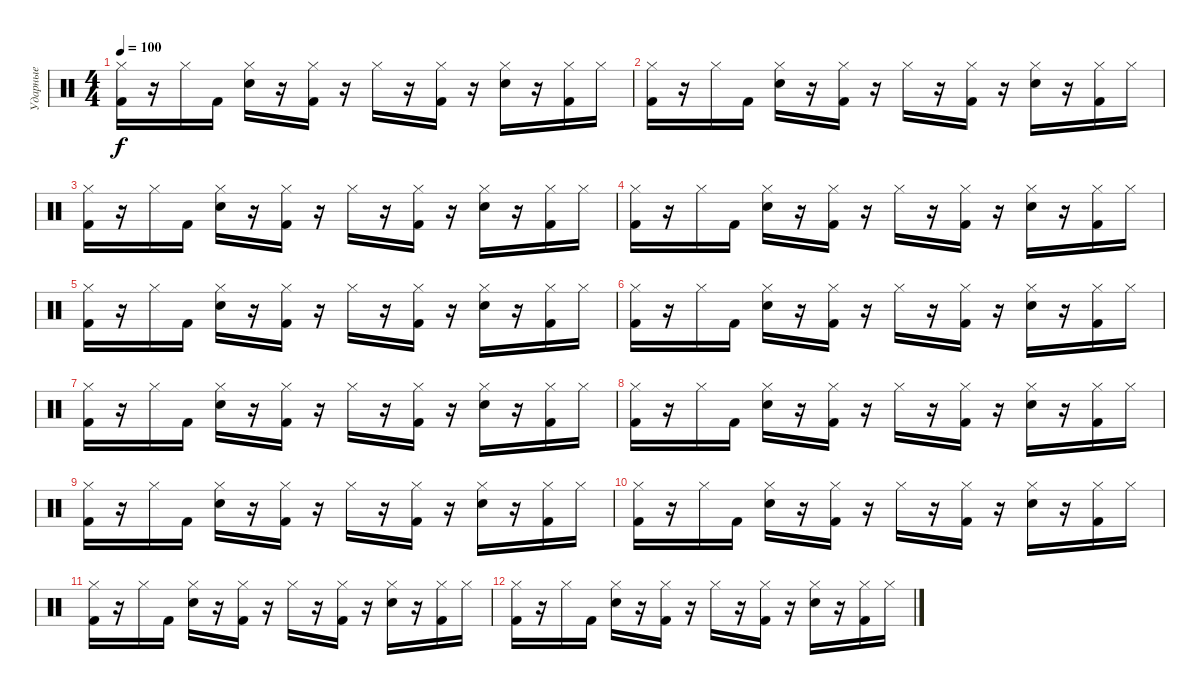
\track ("Ударные" "Ударные") {instrument percussion}
\staff {score}
\articulation defaults
\ts (4 4)
\tempo 100
\clef neutral
\ks c
("Kick (hit) 2" "Hi-Hat (closed)").16{dy f} r.16 "Hi-Hat (closed)".16 "Kick (hit) 2".16 ("Electric Snare (hit)" "Hi-Hat (closed)").16 r.16 ("Kick (hit) 2" "Hi-Hat (closed)").16 r.16 "Hi-Hat (closed)".16 r.16 ("Kick (hit) 2" "Hi-Hat (closed)").16 r.16 ("Electric Snare (hit)" "Hi-Hat (closed)").16 r.16 ("Kick (hit) 2" "Hi-Hat (closed)").16 "Hi-Hat (closed)".16 |
("Kick (hit) 2" "Hi-Hat (closed)").16 r.16 "Hi-Hat (closed)".16 "Kick (hit) 2".16 ("Electric Snare (hit)" "Hi-Hat (closed)").16 r.16 ("Kick (hit) 2" "Hi-Hat (closed)").16 r.16 "Hi-Hat (closed)".16 r.16 ("Kick (hit) 2" "Hi-Hat (closed)").16 r.16 ("Electric Snare (hit)" "Hi-Hat (closed)").16 r.16 ("Kick (hit) 2" "Hi-Hat (closed)").16 "Hi-Hat (closed)".16 |
("Kick (hit) 2" "Hi-Hat (closed)").16 r.16 "Hi-Hat (closed)".16 "Kick (hit) 2".16 ("Electric Snare (hit)" "Hi-Hat (closed)").16 r.16 ("Kick (hit) 2" "Hi-Hat (closed)").16 r.16 "Hi-Hat (closed)".16 r.16 ("Kick (hit) 2" "Hi-Hat (closed)").16 r.16 ("Electric Snare (hit)" "Hi-Hat (closed)").16 r.16 ("Kick (hit) 2" "Hi-Hat (closed)").16 "Hi-Hat (closed)".16 |
("Kick (hit) 2" "Hi-Hat (closed)").16 r.16 "Hi-Hat (closed)".16 "Kick (hit) 2".16 ("Electric Snare (hit)" "Hi-Hat (closed)").16 r.16 ("Kick (hit) 2" "Hi-Hat (closed)").16 r.16 "Hi-Hat (closed)".16 r.16 ("Kick (hit) 2" "Hi-Hat (closed)").16 r.16 ("Electric Snare (hit)" "Hi-Hat (closed)").16 r.16 ("Kick (hit) 2" "Hi-Hat (closed)").16 "Hi-Hat (closed)".16 |
("Kick (hit) 2" "Hi-Hat (closed)").16 r.16 "Hi-Hat (closed)".16 "Kick (hit) 2".16 ("Electric Snare (hit)" "Hi-Hat (closed)").16 r.16 ("Kick (hit) 2" "Hi-Hat (closed)").16 r.16 "Hi-Hat (closed)".16 r.16 ("Kick (hit) 2" "Hi-Hat (closed)").16 r.16 ("Electric Snare (hit)" "Hi-Hat (closed)").16 r.16 ("Kick (hit) 2" "Hi-Hat (closed)").16 "Hi-Hat (closed)".16 |
("Kick (hit) 2" "Hi-Hat (closed)").16 r.16 "Hi-Hat (closed)".16 "Kick (hit) 2".16 ("Electric Snare (hit)" "Hi-Hat (closed)").16 r.16 ("Kick (hit) 2" "Hi-Hat (closed)").16 r.16 "Hi-Hat (closed)".16 r.16 ("Kick (hit) 2" "Hi-Hat (closed)").16 r.16 ("Electric Snare (hit)" "Hi-Hat (closed)").16 r.16 ("Kick (hit) 2" "Hi-Hat (closed)").16 "Hi-Hat (closed)".16 |
("Kick (hit) 2" "Hi-Hat (closed)").16 r.16 "Hi-Hat (closed)".16 "Kick (hit) 2".16 ("Electric Snare (hit)" "Hi-Hat (closed)").16 r.16 ("Kick (hit) 2" "Hi-Hat (closed)").16 r.16 "Hi-Hat (closed)".16 r.16 ("Kick (hit) 2" "Hi-Hat (closed)").16 r.16 ("Electric Snare (hit)" "Hi-Hat (closed)").16 r.16 ("Kick (hit) 2" "Hi-Hat (closed)").16 "Hi-Hat (closed)".16 |
("Kick (hit) 2" "Hi-Hat (closed)").16 r.16 "Hi-Hat (closed)".16 "Kick (hit) 2".16 ("Electric Snare (hit)" "Hi-Hat (closed)").16 r.16 ("Kick (hit) 2" "Hi-Hat (closed)").16 r.16 "Hi-Hat (closed)".16 r.16 ("Kick (hit) 2" "Hi-Hat (closed)").16 r.16 ("Electric Snare (hit)" "Hi-Hat (closed)").16 r.16 ("Kick (hit) 2" "Hi-Hat (closed)").16 "Hi-Hat (closed)".16 |
("Kick (hit) 2" "Hi-Hat (closed)").16 r.16 "Hi-Hat (closed)".16 "Kick (hit) 2".16 ("Electric Snare (hit)" "Hi-Hat (closed)").16 r.16 ("Kick (hit) 2" "Hi-Hat (closed)").16 r.16 "Hi-Hat (closed)".16 r.16 ("Kick (hit) 2" "Hi-Hat (closed)").16 r.16 ("Electric Snare (hit)" "Hi-Hat (closed)").16 r.16 ("Kick (hit) 2" "Hi-Hat (closed)").16 "Hi-Hat (closed)".16 |
("Kick (hit) 2" "Hi-Hat (closed)").16 r.16 "Hi-Hat (closed)".16 "Kick (hit) 2".16 ("Electric Snare (hit)" "Hi-Hat (closed)").16 r.16 ("Kick (hit) 2" "Hi-Hat (closed)").16 r.16 "Hi-Hat (closed)".16 r.16 ("Kick (hit) 2" "Hi-Hat (closed)").16 r.16 ("Electric Snare (hit)" "Hi-Hat (closed)").16 r.16 ("Kick (hit) 2" "Hi-Hat (closed)").16 "Hi-Hat (closed)".16 |
("Kick (hit) 2" "Hi-Hat (closed)").16 r.16 "Hi-Hat (closed)".16 "Kick (hit) 2".16 ("Electric Snare (hit)" "Hi-Hat (closed)").16 r.16 ("Kick (hit) 2" "Hi-Hat (closed)").16 r.16 "Hi-Hat (closed)".16 r.16 ("Kick (hit) 2" "Hi-Hat (closed)").16 r.16 ("Electric Snare (hit)" "Hi-Hat (closed)").16 r.16 ("Kick (hit) 2" "Hi-Hat (closed)").16 "Hi-Hat (closed)".16 |
("Kick (hit) 2" "Hi-Hat (closed)").16 r.16 "Hi-Hat (closed)".16 "Kick (hit) 2".16 ("Electric Snare (hit)" "Hi-Hat (closed)").16 r.16 ("Kick (hit) 2" "Hi-Hat (closed)").16 r.16 "Hi-Hat (closed)".16 r.16 ("Kick (hit) 2" "Hi-Hat (closed)").16 r.16 ("Electric Snare (hit)" "Hi-Hat (closed)").16 r.16 ("Kick (hit) 2" "Hi-Hat (closed)").16 "Hi-Hat (closed)".16
